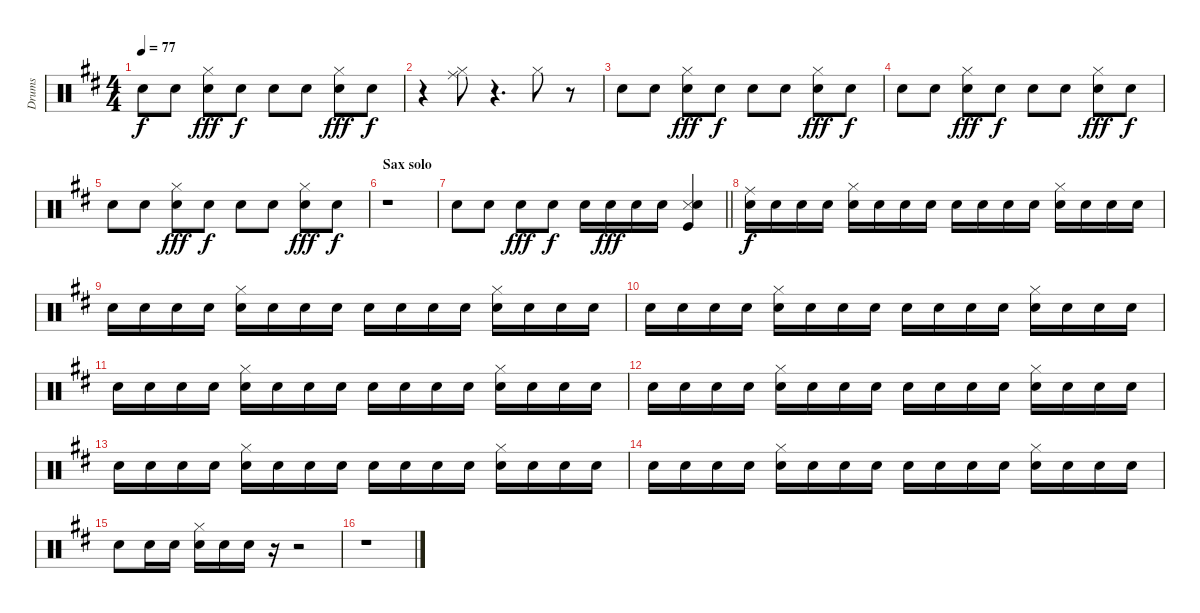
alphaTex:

\track ("Drums" "Drums") {instrument percussion}
\staff {score}
\articulation defaults
\ts (4 4)
\tempo 77
\clef neutral
\ks d "Snare (hit) 2".8{dy f} "Snare (hit) 2".8
("Hi-Hat (closed)" "Snare (hit) 2").8{dy fff} "Snare (hit) 2".8{dy f} "Snare (hit) 2".8 "Snare (hit) 2".8 ("Hi-Hat (closed)" "Snare (hit) 2").8{dy fff} "Snare (hit) 2".8{dy f} |
r.4 ("Ride (middle)" "Hi-Hat (closed)").8 r.4{d} "Hi-Hat (closed)".8 r.8 |
"Snare (hit) 2".8 "Snare (hit) 2".8 ("Hi-Hat (closed)" "Snare (hit) 2").8{dy fff} "Snare (hit) 2".8{dy f} "Snare (hit) 2".8 "Snare (hit) 2".8 ("Hi-Hat (closed)" "Snare (hit) 2").8{dy fff} "Snare (hit) 2".8{dy f} |
"Snare (hit) 2".8 "Snare (hit) 2".8 ("Hi-Hat (closed)" "Snare (hit) 2").8{dy fff} "Snare (hit) 2".8{dy f} "Snare (hit) 2".8 "Snare (hit) 2".8 ("Hi-Hat (closed)" "Snare (hit) 2").8{dy fff} "Snare (hit) 2".8{dy f} |
"Snare (hit) 2".8 "Snare (hit) 2".8 ("Hi-Hat (closed)" "Snare (hit) 2").8{dy fff} "Snare (hit) 2".8{dy f} "Snare (hit) 2".8 "Snare (hit) 2".8 ("Hi-Hat (closed)" "Snare (hit) 2").8{dy fff} "Snare (hit) 2".8{dy f} |
\section ("" "Sax solo")
r.1 |
\barLineRight lightlight "Snare (hit) 2".8 "Snare (hit) 2".8 "Snare (hit) 2".8{dy fff} "Snare (hit) 2".8{dy f} "Snare (hit) 2".16 "Snare (hit) 2".16{dy fff} "Snare (hit) 2".16 "Snare (hit) 2".16
("Snare (side stick) 3" "Snare (hit) 2" "Kick (hit)").4 |
("Ride (middle)" "Snare (hit) 2").16{dy f} "Snare (hit) 2".16 "Snare (hit) 2".16 "Snare (hit) 2".16 ("Hi-Hat (closed)" "Snare (hit) 2").16 "Snare (hit) 2".16 "Snare (hit) 2".16 "Snare (hit) 2".16 "Snare (hit) 2".16 "Snare (hit) 2".16 "Snare (hit) 2".16 "Snare (hit) 2".16 ("Hi-Hat (closed)" "Snare (hit) 2").16 "Snare (hit) 2".16 "Snare (hit) 2".16 "Snare (hit) 2".16 |
"Snare (hit) 2".16 "Snare (hit) 2".16 "Snare (hit) 2".16 "Snare (hit) 2".16 ("Hi-Hat (closed)" "Snare (hit) 2").16 "Snare (hit) 2".16 "Snare (hit) 2".16 "Snare (hit) 2".16 "Snare (hit) 2".16 "Snare (hit) 2".16 "Snare (hit) 2".16 "Snare (hit) 2".16 ("Hi-Hat (closed)" "Snare (hit) 2").16 "Snare (hit) 2".16 "Snare (hit) 2".16 "Snare (hit) 2".16 |
"Snare (hit) 2".16 "Snare (hit) 2".16 "Snare (hit) 2".16 "Snare (hit) 2".16 ("Hi-Hat (closed)" "Snare (hit) 2").16 "Snare (hit) 2".16 "Snare (hit) 2".16 "Snare (hit) 2".16 "Snare (hit) 2".16 "Snare (hit) 2".16 "Snare (hit) 2".16 "Snare (hit) 2".16 ("Hi-Hat (closed)" "Snare (hit) 2").16 "Snare (hit) 2".16 "Snare (hit) 2".16 "Snare (hit) 2".16 |
"Snare (hit) 2".16 "Snare (hit) 2".16 "Snare (hit) 2".16 "Snare (hit) 2".16 ("Hi-Hat (closed)" "Snare (hit) 2").16 "Snare (hit) 2".16 "Snare (hit) 2".16 "Snare (hit) 2".16 "Snare (hit) 2".16 "Snare (hit) 2".16 "Snare (hit) 2".16 "Snare (hit) 2".16 ("Hi-Hat (closed)" "Snare (hit) 2").16 "Snare (hit) 2".16 "Snare (hit) 2".16 "Snare (hit) 2".16 |
"Snare (hit) 2".16 "Snare (hit) 2".16 "Snare (hit) 2".16 "Snare (hit) 2".16 ("Hi-Hat (closed)" "Snare (hit) 2").16 "Snare (hit) 2".16 "Snare (hit) 2".16 "Snare (hit) 2".16 "Snare (hit) 2".16 "Snare (hit) 2".16 "Snare (hit) 2".16 "Snare (hit) 2".16 ("Hi-Hat (closed)" "Snare (hit) 2").16 "Snare (hit) 2".16 "Snare (hit) 2".16 "Snare (hit) 2".16 |
"Snare (hit) 2".16 "Snare (hit) 2".16 "Snare (hit) 2".16 "Snare (hit) 2".16 ("Hi-Hat (closed)" "Snare (hit) 2").16 "Snare (hit) 2".16 "Snare (hit) 2".16 "Snare (hit) 2".16 "Snare (hit) 2".16 "Snare (hit) 2".16 "Snare (hit) 2".16 "Snare (hit) 2".16 ("Hi-Hat (closed)" "Snare (hit) 2").16 "Snare (hit) 2".16 "Snare (hit) 2".16 "Snare (hit) 2".16 |
"Snare (hit) 2".16 "Snare (hit) 2".16 "Snare (hit) 2".16 "Snare (hit) 2".16 ("Hi-Hat (closed)" "Snare (hit) 2").16 "Snare (hit) 2".16 "Snare (hit) 2".16 "Snare (hit) 2".16 "Snare (hit) 2".16 "Snare (hit) 2".16 "Snare (hit) 2".16 "Snare (hit) 2".16 ("Hi-Hat (closed)" "Snare (hit) 2").16 "Snare (hit) 2".16 "Snare (hit) 2".16 "Snare (hit) 2".16 |
"Snare (hit) 2".8 "Snare (hit) 2".16 "Snare (hit) 2".16 ("Hi-Hat (closed)" "Snare (hit) 2").16 "Snare (hit) 2".16 "Snare (hit) 2".16 r.16 r.2 |
r.1
